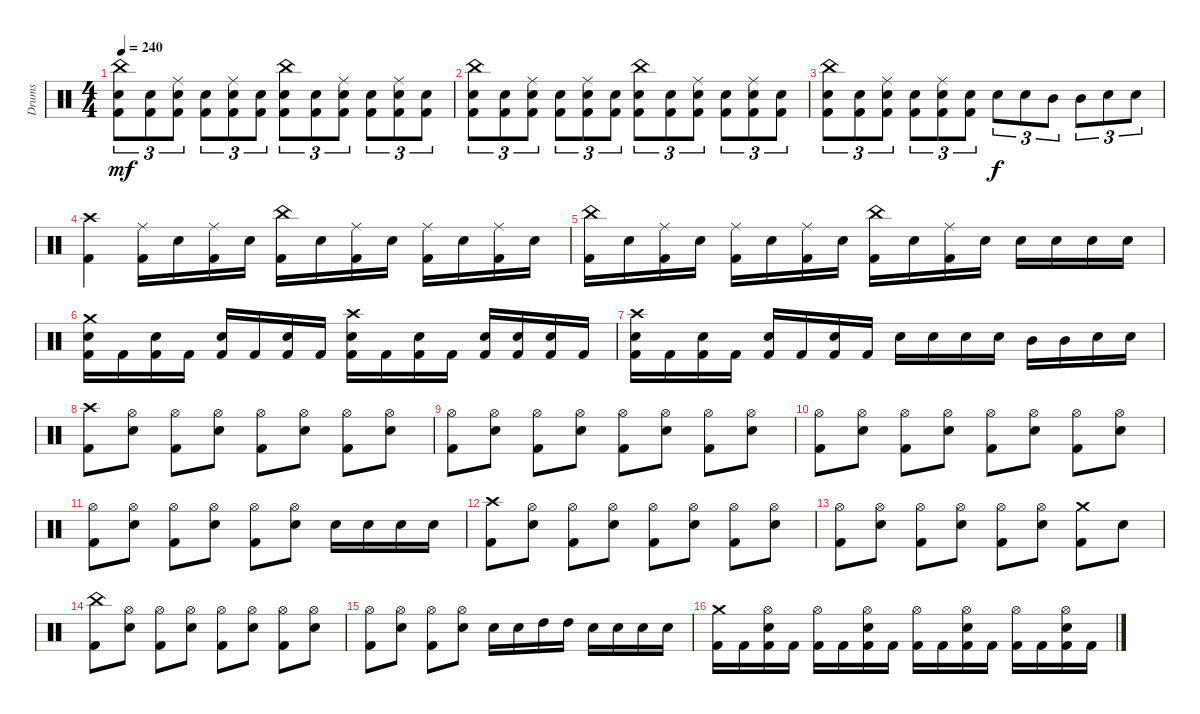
\track ("Drums" "Drums") {instrument percussion}
\staff {score}
\articulation defaults
\ts (4 4)
\tempo 240
\clef neutral
\ks c
("China (hit)" "Electric Snare (hit)" "Kick (hit) 2").8{tu (3 2) dy mf} ("Electric Snare (hit)" "Kick (hit) 2").8{tu (3 2)} ("Ride (middle)" "Electric Snare (hit)" "Kick (hit) 2").8{tu (3 2)} ("Electric Snare (hit)" "Kick (hit) 2").8{tu (3 2)} ("Ride (middle)" "Electric Snare (hit)" "Kick (hit) 2").8{tu (3 2)} ("Electric Snare (hit)" "Kick (hit) 2").8{tu (3 2)} ("China (hit)" "Electric Snare (hit)" "Kick (hit) 2").8{tu (3 2)} ("Electric Snare (hit)" "Kick (hit) 2").8{tu (3 2)} ("Ride (middle)" "Electric Snare (hit)" "Kick (hit) 2").8{tu (3 2)} ("Electric Snare (hit)" "Kick (hit) 2").8{tu (3 2)} ("Ride (middle)" "Electric Snare (hit)" "Kick (hit) 2").8{tu (3 2)} ("Electric Snare (hit)" "Kick (hit) 2").8{tu (3 2)} |
("China (hit)" "Electric Snare (hit)" "Kick (hit) 2").8{tu (3 2)} ("Electric Snare (hit)" "Kick (hit) 2").8{tu (3 2)} ("Ride (middle)" "Electric Snare (hit)" "Kick (hit) 2").8{tu (3 2)} ("Electric Snare (hit)" "Kick (hit) 2").8{tu (3 2)} ("Ride (middle)" "Electric Snare (hit)" "Kick (hit) 2").8{tu (3 2)} ("Electric Snare (hit)" "Kick (hit) 2").8{tu (3 2)} ("China (hit)" "Electric Snare (hit)" "Kick (hit) 2").8{tu (3 2)} ("Electric Snare (hit)" "Kick (hit) 2").8{tu (3 2)} ("Ride (middle)" "Electric Snare (hit)" "Kick (hit) 2").8{tu (3 2)} ("Electric Snare (hit)" "Kick (hit) 2").8{tu (3 2)} ("Ride (middle)" "Electric Snare (hit)" "Kick (hit) 2").8{tu (3 2)} ("Electric Snare (hit)" "Kick (hit) 2").8{tu (3 2)} |
("China (hit)" "Electric Snare (hit)" "Kick (hit) 2").8{tu (3 2)} ("Electric Snare (hit)" "Kick (hit) 2").8{tu (3 2)} ("Ride (middle)" "Electric Snare (hit)" "Kick (hit) 2").8{tu (3 2)} ("Electric Snare (hit)" "Kick (hit) 2").8{tu (3 2)} ("Ride (middle)" "Electric Snare (hit)" "Kick (hit) 2").8{tu (3 2)} ("Electric Snare (hit)" "Kick (hit) 2").8{tu (3 2)} "Electric Snare (hit)".8{tu (3 2) dy f} "Electric Snare (hit)".8{tu (3 2)} "Mid Tom (hit)".8{tu (3 2)} "Mid Tom (hit)".8{tu (3 2)} "Electric Snare (hit)".8{tu (3 2)} "Electric Snare (hit)".8{tu (3 2)} |
("Crash high (hit)" "Kick (hit) 2").4 ("Ride (middle)" "Kick (hit) 2").16 "Electric Snare (hit)".16 ("Ride (middle)" "Kick (hit) 2").16 "Electric Snare (hit)".16 ("China (hit)" "Kick (hit) 2").16 "Electric Snare (hit)".16 ("Ride (middle)" "Kick (hit) 2").16 "Electric Snare (hit)".16 ("Ride (middle)" "Kick (hit) 2").16 "Electric Snare (hit)".16 ("Ride (middle)" "Kick (hit) 2").16 "Electric Snare (hit)".16 |
("China (hit)" "Kick (hit) 2").16 "Electric Snare (hit)".16 ("Ride (middle)" "Kick (hit) 2").16 "Electric Snare (hit)".16 ("Ride (middle)" "Kick (hit) 2").16 "Electric Snare (hit)".16 ("Ride (middle)" "Kick (hit) 2").16 "Electric Snare (hit)".16 ("China (hit)" "Kick (hit) 2").16 "Electric Snare (hit)".16 ("Ride (middle)" "Kick (hit) 2").16 "Electric Snare (hit)".16 "Electric Snare (hit)".16 "Electric Snare (hit)".16 "Electric Snare (hit)".16 "Electric Snare (hit)".16 |
("Crash medium (hit)" "Electric Snare (hit)" "Kick (hit) 2").16 "Kick (hit) 2".16 ("Electric Snare (hit)" "Kick (hit) 2").16 "Kick (hit) 2".16 ("Electric Snare (hit)" "Kick (hit) 2").16 "Kick (hit) 2".16 ("Electric Snare (hit)" "Kick (hit) 2").16 "Kick (hit) 2".16 ("Crash high (hit)" "Electric Snare (hit)" "Kick (hit) 2").16 "Kick (hit) 2".16 ("Electric Snare (hit)" "Kick (hit) 2").16 "Kick (hit) 2".16 ("Electric Snare (hit)" "Kick (hit) 2").16 ("Electric Snare (hit)" "Kick (hit) 2").16 ("Electric Snare (hit)" "Kick (hit) 2").16 "Kick (hit) 2".16 |
("Crash high (hit)" "Electric Snare (hit)" "Kick (hit) 2").16 "Kick (hit) 2".16 ("Electric Snare (hit)" "Kick (hit) 2").16 "Kick (hit) 2".16 ("Electric Snare (hit)" "Kick (hit) 2").16 "Kick (hit) 2".16 ("Electric Snare (hit)" "Kick (hit) 2").16 "Kick (hit) 2".16 "Electric Snare (hit)".16 "Electric Snare (hit)".16 "Electric Snare (hit)".16 "Electric Snare (hit)".16 "Mid Tom (hit)".16 "Mid Tom (hit)".16 "Electric Snare (hit)".16 "Electric Snare (hit)".16 |
("Crash high (hit)" "Kick (hit) 2").8 ("Hi-Hat (open)" "Electric Snare (hit)").8 ("Hi-Hat (open)" "Kick (hit) 2").8 ("Hi-Hat (open)" "Electric Snare (hit)").8 ("Hi-Hat (open)" "Kick (hit) 2").8 ("Hi-Hat (open)" "Electric Snare (hit)").8 ("Hi-Hat (open)" "Kick (hit) 2").8 ("Hi-Hat (open)" "Electric Snare (hit)").8 |
("Hi-Hat (open)" "Kick (hit) 2").8 ("Hi-Hat (open)" "Electric Snare (hit)").8 ("Hi-Hat (open)" "Kick (hit) 2").8 ("Hi-Hat (open)" "Electric Snare (hit)").8 ("Hi-Hat (open)" "Kick (hit) 2").8 ("Hi-Hat (open)" "Electric Snare (hit)").8 ("Hi-Hat (open)" "Kick (hit) 2").8 ("Hi-Hat (open)" "Electric Snare (hit)").8 |
("Hi-Hat (open)" "Kick (hit) 2").8 ("Hi-Hat (open)" "Electric Snare (hit)").8 ("Hi-Hat (open)" "Kick (hit) 2").8 ("Hi-Hat (open)" "Electric Snare (hit)").8 ("Hi-Hat (open)" "Kick (hit) 2").8 ("Hi-Hat (open)" "Electric Snare (hit)").8 ("Hi-Hat (open)" "Kick (hit) 2").8 ("Hi-Hat (open)" "Electric Snare (hit)").8 |
("Hi-Hat (open)" "Kick (hit) 2").8 ("Hi-Hat (open)" "Electric Snare (hit)").8 ("Hi-Hat (open)" "Kick (hit) 2").8 ("Hi-Hat (open)" "Electric Snare (hit)").8 ("Hi-Hat (open)" "Kick (hit) 2").8 ("Hi-Hat (open)" "Electric Snare (hit)").8 "Electric Snare (hit)".16 "Electric Snare (hit)".16 "Electric Snare (hit)".16 "Electric Snare (hit)".16 |
("Crash high (hit)" "Kick (hit) 2").8 ("Hi-Hat (open)" "Electric Snare (hit)").8 ("Hi-Hat (open)" "Kick (hit) 2").8 ("Hi-Hat (open)" "Electric Snare (hit)").8 ("Hi-Hat (open)" "Kick (hit) 2").8 ("Hi-Hat (open)" "Electric Snare (hit)").8 ("Hi-Hat (open)" "Kick (hit) 2").8 ("Hi-Hat (open)" "Electric Snare (hit)").8 |
("Hi-Hat (open)" "Kick (hit) 2").8 ("Hi-Hat (open)" "Electric Snare (hit)").8 ("Hi-Hat (open)" "Kick (hit) 2").8 ("Hi-Hat (open)" "Electric Snare (hit)").8 ("Hi-Hat (open)" "Kick (hit) 2").8 ("Hi-Hat (open)" "Electric Snare (hit)").8 ("Crash medium (hit)" "Kick (hit) 2").8 "Electric Snare (hit)".8 |
("China (hit)" "Kick (hit) 2").8 ("Hi-Hat (open)" "Electric Snare (hit)").8 ("Hi-Hat (open)" "Kick (hit) 2").8 ("Hi-Hat (open)" "Electric Snare (hit)").8 ("Hi-Hat (open)" "Kick (hit) 2").8 ("Hi-Hat (open)" "Electric Snare (hit)").8 ("Hi-Hat (open)" "Kick (hit) 2").8 ("Hi-Hat (open)" "Electric Snare (hit)").8 |
("Hi-Hat (open)" "Kick (hit) 2").8 ("Hi-Hat (open)" "Electric Snare (hit)").8 ("Hi-Hat (open)" "Kick (hit) 2").8 ("Hi-Hat (open)" "Electric Snare (hit)").8 "Electric Snare (hit)".16 "Electric Snare (hit)".16 "High Tom (hit)".16 "High Tom (hit)".16 "Electric Snare (hit)".16 "Electric Snare (hit)".16 "Electric Snare (hit)".16 "Electric Snare (hit)".16 |
("Crash medium (hit)" "Kick (hit) 2").16 "Kick (hit) 2".16 ("Hi-Hat (open)" "Electric Snare (hit)" "Kick (hit) 2").16 "Kick (hit) 2".16 ("Hi-Hat (open)" "Kick (hit) 2").16 "Kick (hit) 2".16 ("Hi-Hat (open)" "Electric Snare (hit)" "Kick (hit) 2").16 "Kick (hit) 2".16 ("Hi-Hat (open)" "Kick (hit) 2").16 "Kick (hit) 2".16 ("Hi-Hat (open)" "Electric Snare (hit)" "Kick (hit) 2").16 "Kick (hit) 2".16 ("Hi-Hat (open)" "Kick (hit) 2").16 "Kick (hit) 2".16 ("Hi-Hat (open)" "Electric Snare (hit)" "Kick (hit) 2").16 "Kick (hit) 2".16
